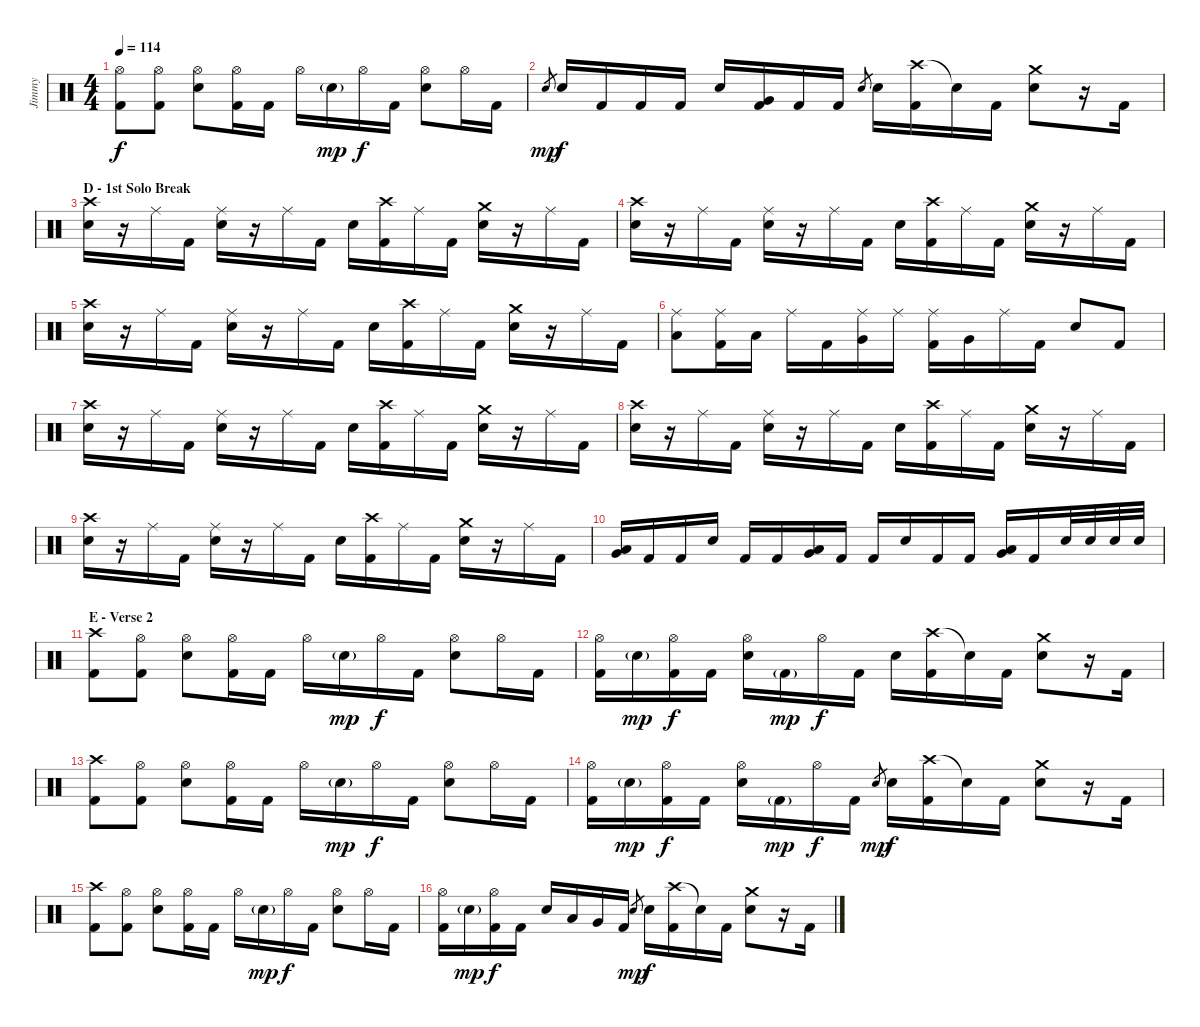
\track ("Jimmy" "Jimmy") {instrument percussion}
\staff {score}
\articulation defaults
\ts (4 4)
\tempo 114
\clef neutral
\ks c
("Hi-Hat (open)" "Kick (hit) 2").8{dy f} ("Hi-Hat (open)" "Kick (hit) 2").8 ("Hi-Hat (open)" "Electric Snare (hit)").8 ("Hi-Hat (open)" "Kick (hit) 2").16 "Kick (hit) 2".16 "Hi-Hat (open)".16 "Electric Snare (hit)"{g}.16{dy mp} "Hi-Hat (open)".16{dy f} "Kick (hit) 2".16 ("Hi-Hat (open)" "Electric Snare (hit)").8 "Hi-Hat (open)".16 "Kick (hit) 2".16 |
"Electric Snare (hit)".8{gr dy mp} "Electric Snare (hit)".16{dy f} "Kick (hit) 2".16 "Kick (hit) 2".16 "Kick (hit) 2".16 "Electric Snare (hit)".16 ("Very Low Tom (hit)" "Kick (hit) 2").16 "Kick (hit) 2".16 "Kick (hit) 2".16 "Electric Snare (hit)".8{gr} "Electric Snare (hit)".16 ("Crash high (hit)" "Kick (hit) 2").16 "Snare (hit)"{t}.16 "Kick (hit) 2".16 ("Crash medium (hit)" "Electric Snare (hit)").8 r.16 "Kick (hit) 2".16 |
\section ("" "D - 1st Solo Break")
("Crash high (hit)" "Electric Snare (hit)").16 r.16 "Ride (middle)".16 "Kick (hit) 2".16 ("Ride (middle)" "Electric Snare (hit)").16 r.16 "Ride (middle)".16 "Kick (hit) 2".16 "Electric Snare (hit)".16 ("Crash high (hit)" "Kick (hit) 2").16 "Ride (middle)".16 "Kick (hit) 2".16 ("Crash medium (hit)" "Electric Snare (hit)").16 r.16 "Ride (middle)".16 "Kick (hit) 2".16 |
("Crash high (hit)" "Electric Snare (hit)").16 r.16 "Ride (middle)".16 "Kick (hit) 2".16 ("Ride (middle)" "Electric Snare (hit)").16 r.16 "Ride (middle)".16 "Kick (hit) 2".16 "Electric Snare (hit)".16 ("Crash high (hit)" "Kick (hit) 2").16 "Ride (middle)".16 "Kick (hit) 2".16 ("Crash medium (hit)" "Electric Snare (hit)").16 r.16 "Ride (middle)".16 "Kick (hit) 2".16 |
("Crash high (hit)" "Electric Snare (hit)").16 r.16 "Ride (middle)".16 "Kick (hit) 2".16 ("Ride (middle)" "Electric Snare (hit)").16 r.16 "Ride (middle)".16 "Kick (hit) 2".16 "Electric Snare (hit)".16 ("Crash high (hit)" "Kick (hit) 2").16 "Ride (middle)".16 "Kick (hit) 2".16 ("Crash medium (hit)" "Electric Snare (hit)").16 r.16 "Ride (middle)".16 "Kick (hit) 2".16 |
("Ride (middle)" "Low Tom (hit)").8 ("Ride (middle)" "Kick (hit) 2").16 "Low Tom (hit)".16 "Ride (middle)".16 "Kick (hit) 2".16 ("Ride (middle)" "Very Low Tom (hit)").16 "Ride (middle)".16 ("Ride (middle)" "Kick (hit) 2").16 "Very Low Tom (hit)".16 "Ride (middle)".16 "Kick (hit) 2".16 "Electric Snare (hit)".8 "Kick (hit) 2".8 |
("Crash high (hit)" "Electric Snare (hit)").16 r.16 "Ride (middle)".16 "Kick (hit) 2".16 ("Ride (middle)" "Electric Snare (hit)").16 r.16 "Ride (middle)".16 "Kick (hit) 2".16 "Electric Snare (hit)".16 ("Crash high (hit)" "Kick (hit) 2").16 "Ride (middle)".16 "Kick (hit) 2".16 ("Crash medium (hit)" "Electric Snare (hit)").16 r.16 "Ride (middle)".16 "Kick (hit) 2".16 |
("Crash high (hit)" "Electric Snare (hit)").16 r.16 "Ride (middle)".16 "Kick (hit) 2".16 ("Ride (middle)" "Electric Snare (hit)").16 r.16 "Ride (middle)".16 "Kick (hit) 2".16 "Electric Snare (hit)".16 ("Crash high (hit)" "Kick (hit) 2").16 "Ride (middle)".16 "Kick (hit) 2".16 ("Crash medium (hit)" "Electric Snare (hit)").16 r.16 "Ride (middle)".16 "Kick (hit) 2".16 |
("Crash high (hit)" "Electric Snare (hit)").16 r.16 "Ride (middle)".16 "Kick (hit) 2".16 ("Ride (middle)" "Electric Snare (hit)").16 r.16 "Ride (middle)".16 "Kick (hit) 2".16 "Electric Snare (hit)".16 ("Crash high (hit)" "Kick (hit) 2").16 "Ride (middle)".16 "Kick (hit) 2".16 ("Crash medium (hit)" "Electric Snare (hit)").16 r.16 "Ride (middle)".16 "Kick (hit) 2".16 |
("Low Tom (hit)" "Very Low Tom (hit)").16 "Kick (hit) 2".16 "Kick (hit) 2".16 "Electric Snare (hit)".16 "Kick (hit) 2".16 "Kick (hit) 2".16 ("Low Tom (hit)" "Very Low Tom (hit)").16 "Kick (hit) 2".16 "Kick (hit) 2".16 "Electric Snare (hit)".16 "Kick (hit) 2".16 "Kick (hit) 2".16 ("Low Tom (hit)" "Very Low Tom (hit)").16 "Kick (hit) 2".16 "Electric Snare (hit)".32 "Electric Snare (hit)".32 "Electric Snare (hit)".32 "Electric Snare (hit)".32 |
\section ("" "E - Verse 2")
("Crash high (hit)" "Kick (hit) 2").8 ("Hi-Hat (open)" "Kick (hit) 2").8 ("Hi-Hat (open)" "Electric Snare (hit)").8 ("Hi-Hat (open)" "Kick (hit) 2").16 "Kick (hit) 2".16 "Hi-Hat (open)".16 "Electric Snare (hit)"{g}.16{dy mp} "Hi-Hat (open)".16{dy f} "Kick (hit) 2".16 ("Hi-Hat (open)" "Electric Snare (hit)").8 "Hi-Hat (open)".16 "Kick (hit) 2".16 |
("Hi-Hat (open)" "Kick (hit) 2").16 "Electric Snare (hit)"{g}.16{dy mp} ("Hi-Hat (open)" "Kick (hit) 2").16{dy f} "Kick (hit) 2".16 ("Hi-Hat (open)" "Electric Snare (hit)").16 "Kick (hit) 2"{g}.16{dy mp} "Hi-Hat (open)".16{dy f} "Kick (hit) 2".16 "Electric Snare (hit)".16 ("Crash high (hit)" "Kick (hit) 2").16 "Snare (hit)"{t}.16 "Kick (hit) 2".16 ("Crash medium (hit)" "Electric Snare (hit)").8 r.16 "Kick (hit) 2".16 |
("Crash high (hit)" "Kick (hit) 2").8 ("Hi-Hat (open)" "Kick (hit) 2").8 ("Hi-Hat (open)" "Electric Snare (hit)").8 ("Hi-Hat (open)" "Kick (hit) 2").16 "Kick (hit) 2".16 "Hi-Hat (open)".16 "Electric Snare (hit)"{g}.16{dy mp} "Hi-Hat (open)".16{dy f} "Kick (hit) 2".16 ("Hi-Hat (open)" "Electric Snare (hit)").8 "Hi-Hat (open)".16 "Kick (hit) 2".16 |
("Hi-Hat (open)" "Kick (hit) 2").16 "Electric Snare (hit)"{g}.16{dy mp} ("Hi-Hat (open)" "Kick (hit) 2").16{dy f} "Kick (hit) 2".16 ("Hi-Hat (open)" "Electric Snare (hit)").16 "Kick (hit) 2"{g}.16{dy mp} "Hi-Hat (open)".16{dy f} "Kick (hit) 2".16 "Electric Snare (hit)".8{gr dy mp} "Electric Snare (hit)".16{dy f} ("Crash high (hit)" "Kick (hit) 2").16 "Snare (hit)"{t}.16 "Kick (hit) 2".16 ("Crash medium (hit)" "Electric Snare (hit)").8 r.16 "Kick (hit) 2".16 |
("Crash high (hit)" "Kick (hit) 2").8 ("Hi-Hat (open)" "Kick (hit) 2").8 ("Hi-Hat (open)" "Electric Snare (hit)").8 ("Hi-Hat (open)" "Kick (hit) 2").16 "Kick (hit) 2".16 "Hi-Hat (open)".16 "Electric Snare (hit)"{g}.16{dy mp} "Hi-Hat (open)".16{dy f} "Kick (hit) 2".16 ("Hi-Hat (open)" "Electric Snare (hit)").8 "Hi-Hat (open)".16 "Kick (hit) 2".16 |
("Hi-Hat (open)" "Kick (hit) 2").16 "Electric Snare (hit)"{g}.16{dy mp} ("Hi-Hat (open)" "Kick (hit) 2").16{dy f} "Kick (hit) 2".16 "Electric Snare (hit)".16 "Low Tom (hit)".16 "Very Low Tom (hit)".16 "Kick (hit) 2".16 "Electric Snare (hit)".8{gr dy mp} "Electric Snare (hit)".16{dy f} ("Crash high (hit)" "Kick (hit) 2").16 "Snare (hit)"{t}.16 "Kick (hit) 2".16 ("Crash medium (hit)" "Electric Snare (hit)").8 r.16 "Kick (hit) 2".16
